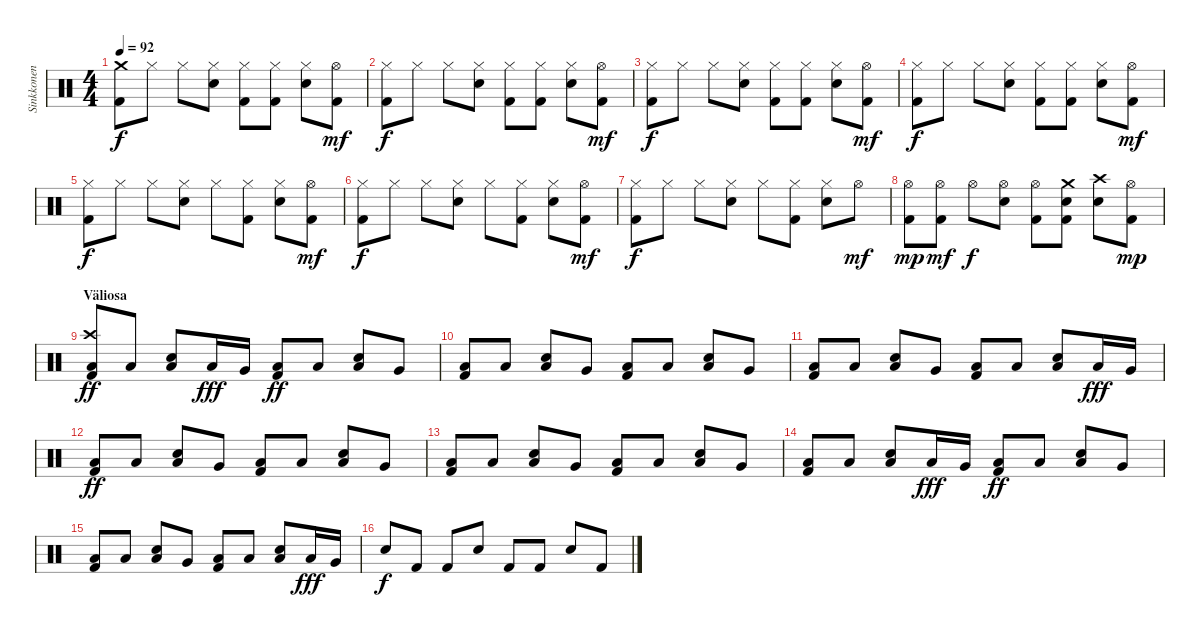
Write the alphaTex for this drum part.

\track ("Sinkkonen" "Sinkkonen") {instrument percussion}
\staff {score}
\articulation defaults
\ts (4 4)
\tempo 92
\clef neutral
\ks c
("Kick (hit) 2" "Crash medium (hit)").8{dy f} "Hi-Hat (closed)".8 "Hi-Hat (closed)".8 ("Hi-Hat (closed)" "Snare (hit) 2").8 ("Kick (hit) 2" "Hi-Hat (closed)").8 ("Kick (hit) 2" "Hi-Hat (closed)").8 ("Hi-Hat (closed)" "Snare (hit) 2").8 ("Kick (hit) 2" "Hi-Hat (open)").8{dy mf} |
("Kick (hit) 2" "Hi-Hat (closed)").8{dy f} "Hi-Hat (closed)".8 "Hi-Hat (closed)".8 ("Hi-Hat (closed)" "Snare (hit) 2").8 ("Kick (hit) 2" "Hi-Hat (closed)").8 ("Kick (hit) 2" "Hi-Hat (closed)").8 ("Hi-Hat (closed)" "Snare (hit) 2").8 ("Kick (hit) 2" "Hi-Hat (open)").8{dy mf} |
("Kick (hit) 2" "Hi-Hat (closed)").8{dy f} "Hi-Hat (closed)".8 "Hi-Hat (closed)".8 ("Hi-Hat (closed)" "Snare (hit) 2").8 ("Kick (hit) 2" "Hi-Hat (closed)").8 ("Kick (hit) 2" "Hi-Hat (closed)").8 ("Hi-Hat (closed)" "Snare (hit) 2").8 ("Kick (hit) 2" "Hi-Hat (open)").8{dy mf} |
("Kick (hit) 2" "Hi-Hat (closed)").8{dy f} "Hi-Hat (closed)".8 "Hi-Hat (closed)".8 ("Hi-Hat (closed)" "Snare (hit) 2").8 ("Kick (hit) 2" "Hi-Hat (closed)").8 ("Kick (hit) 2" "Hi-Hat (closed)").8 ("Hi-Hat (closed)" "Snare (hit) 2").8 ("Kick (hit) 2" "Hi-Hat (open)").8{dy mf} |
("Kick (hit) 2" "Hi-Hat (closed)").8{dy f} "Hi-Hat (closed)".8 "Hi-Hat (closed)".8 ("Hi-Hat (closed)" "Snare (hit) 2").8 "Hi-Hat (closed)".8 ("Kick (hit) 2" "Hi-Hat (closed)").8 ("Hi-Hat (closed)" "Snare (hit) 2").8 ("Kick (hit) 2" "Hi-Hat (open)").8{dy mf} |
("Kick (hit) 2" "Hi-Hat (closed)").8{dy f} "Hi-Hat (closed)".8 "Hi-Hat (closed)".8 ("Hi-Hat (closed)" "Snare (hit) 2").8 "Hi-Hat (closed)".8 ("Kick (hit) 2" "Hi-Hat (closed)").8 ("Hi-Hat (closed)" "Snare (hit) 2").8 ("Kick (hit) 2" "Hi-Hat (open)").8{dy mf} |
("Kick (hit) 2" "Hi-Hat (closed)").8{dy f} "Hi-Hat (closed)".8 "Hi-Hat (closed)".8 ("Hi-Hat (closed)" "Snare (hit) 2").8 "Hi-Hat (closed)".8 ("Kick (hit) 2" "Hi-Hat (closed)").8 ("Hi-Hat (closed)" "Snare (hit) 2").8 "Hi-Hat (open)".8{dy mf} |
("Kick (hit) 2" "Hi-Hat (open)").8{dy mp} ("Kick (hit) 2" "Hi-Hat (open)").8{dy mf} "Hi-Hat (open)".8{dy f} ("Hi-Hat (open)" "Snare (hit) 2").8 ("Kick (hit) 2" "Hi-Hat (open)").8 ("Kick (hit) 2" "Crash medium (hit)" "Snare (hit) 2").8 ("Crash high (hit)" "Snare (hit) 2").8 ("Kick (hit) 2" "Hi-Hat (open)").8{dy mp} |
\section ("" "Väliosa")
("Kick (hit) 2" "Crash high (hit)" "Low Floor Tom (hit)").8{dy ff} "Low Floor Tom (hit)".8 ("Low Floor Tom (hit)" "Snare (hit) 2").8 "Low Tom (hit)".16{dy fff} "Very Low Tom (hit)".16 ("Kick (hit) 2" "Low Floor Tom (hit)").8{dy ff} "Low Floor Tom (hit)".8 ("Low Floor Tom (hit)" "Snare (hit) 2").8 "Very Low Tom (hit)".8 |
("Kick (hit) 2" "Low Floor Tom (hit)").8 "Low Floor Tom (hit)".8 ("Low Floor Tom (hit)" "Snare (hit) 2").8 "Very Low Tom (hit)".8 ("Kick (hit) 2" "Low Floor Tom (hit)").8 "Low Floor Tom (hit)".8 ("Low Floor Tom (hit)" "Snare (hit) 2").8 "Very Low Tom (hit)".8 |
("Kick (hit) 2" "Low Floor Tom (hit)").8 "Low Floor Tom (hit)".8 ("Low Floor Tom (hit)" "Snare (hit) 2").8 "Very Low Tom (hit)".8 ("Kick (hit) 2" "Low Floor Tom (hit)").8 "Low Floor Tom (hit)".8 ("Low Floor Tom (hit)" "Snare (hit) 2").8 "Low Floor Tom (hit)".16{dy fff} "Very Low Tom (hit)".16 |
("Kick (hit) 2" "Low Floor Tom (hit)").8{dy ff} "Low Floor Tom (hit)".8 ("Low Floor Tom (hit)" "Snare (hit) 2").8 "Very Low Tom (hit)".8 ("Kick (hit) 2" "Low Floor Tom (hit)").8 "Low Floor Tom (hit)".8 ("Low Floor Tom (hit)" "Snare (hit) 2").8 "Very Low Tom (hit)".8 |
("Kick (hit) 2" "Low Floor Tom (hit)").8 "Low Floor Tom (hit)".8 ("Low Floor Tom (hit)" "Snare (hit) 2").8 "Very Low Tom (hit)".8 ("Kick (hit) 2" "Low Floor Tom (hit)").8 "Low Floor Tom (hit)".8 ("Low Floor Tom (hit)" "Snare (hit) 2").8 "Very Low Tom (hit)".8 |
("Kick (hit) 2" "Low Floor Tom (hit)").8 "Low Floor Tom (hit)".8 ("Low Floor Tom (hit)" "Snare (hit) 2").8 "Low Tom (hit)".16{dy fff} "Very Low Tom (hit)".16 ("Kick (hit) 2" "Low Floor Tom (hit)").8{dy ff} "Low Floor Tom (hit)".8 ("Low Floor Tom (hit)" "Snare (hit) 2").8 "Very Low Tom (hit)".8 |
("Kick (hit) 2" "Low Floor Tom (hit)").8 "Low Floor Tom (hit)".8 ("Low Floor Tom (hit)" "Snare (hit) 2").8 "Very Low Tom (hit)".8 ("Kick (hit) 2" "Low Floor Tom (hit)").8 "Low Floor Tom (hit)".8 ("Low Floor Tom (hit)" "Snare (hit) 2").8 "Low Floor Tom (hit)".16{dy fff} "Very Low Tom (hit)".16 |
"Snare (hit) 2".8{dy f} "Kick (hit) 2".8 "Kick (hit) 2".8 "Snare (hit) 2".8 "Kick (hit) 2".8 "Kick (hit) 2".8 "Snare (hit) 2".8 "Kick (hit) 2".8
